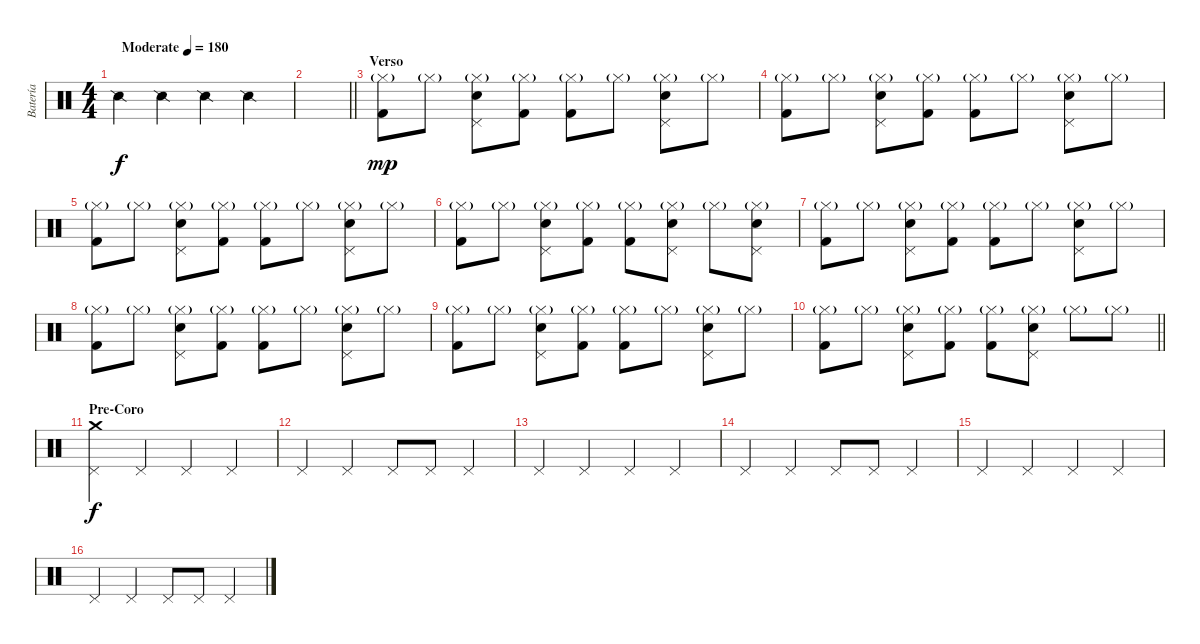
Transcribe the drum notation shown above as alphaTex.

\track ("Batería" "Batería") {instrument percussion}
\staff {score}
\articulation defaults
\ts (4 4)
\tempo (180 "Moderate")
\clef neutral
\ks c "Snare (side stick) 2".4{dy f} "Snare (side stick) 2".4 "Snare (side stick) 2".4 "Snare (side stick) 2".4
|
\barLineRight lightlight
|
\section ("" "Verso")
("Hi-Hat (closed)"{g} "Kick (hit) 2").8{dy mp} "Hi-Hat (closed)"{g}.8 ("Hi-Hat (closed)"{g} "Electric Snare (hit)" "Pedal Hi-Hat (hit)").8 ("Hi-Hat (closed)"{g} "Kick (hit) 2").8 ("Hi-Hat (closed)"{g} "Kick (hit) 2").8 "Hi-Hat (closed)"{g}.8 ("Hi-Hat (closed)"{g} "Electric Snare (hit)" "Pedal Hi-Hat (hit)").8 "Hi-Hat (closed)"{g}.8 |
("Hi-Hat (closed)"{g} "Kick (hit) 2").8 "Hi-Hat (closed)"{g}.8 ("Hi-Hat (closed)"{g} "Electric Snare (hit)" "Pedal Hi-Hat (hit)").8 ("Hi-Hat (closed)"{g} "Kick (hit) 2").8 ("Hi-Hat (closed)"{g} "Kick (hit) 2").8 "Hi-Hat (closed)"{g}.8 ("Hi-Hat (closed)"{g} "Electric Snare (hit)" "Pedal Hi-Hat (hit)").8 "Hi-Hat (closed)"{g}.8 |
("Hi-Hat (closed)"{g} "Kick (hit) 2").8 "Hi-Hat (closed)"{g}.8 ("Hi-Hat (closed)"{g} "Electric Snare (hit)" "Pedal Hi-Hat (hit)").8 ("Hi-Hat (closed)"{g} "Kick (hit) 2").8 ("Hi-Hat (closed)"{g} "Kick (hit) 2").8 "Hi-Hat (closed)"{g}.8 ("Hi-Hat (closed)"{g} "Electric Snare (hit)" "Pedal Hi-Hat (hit)").8 "Hi-Hat (closed)"{g}.8 |
("Hi-Hat (closed)"{g} "Kick (hit) 2").8 "Hi-Hat (closed)"{g}.8 ("Hi-Hat (closed)"{g} "Electric Snare (hit)" "Pedal Hi-Hat (hit)").8 ("Hi-Hat (closed)"{g} "Kick (hit) 2").8 ("Hi-Hat (closed)"{g} "Kick (hit) 2").8 ("Hi-Hat (closed)"{g} "Electric Snare (hit)" "Pedal Hi-Hat (hit)").8 "Hi-Hat (closed)"{g}.8 ("Hi-Hat (closed)"{g} "Electric Snare (hit)" "Pedal Hi-Hat (hit)").8 |
("Hi-Hat (closed)"{g} "Kick (hit) 2").8 "Hi-Hat (closed)"{g}.8 ("Hi-Hat (closed)"{g} "Electric Snare (hit)" "Pedal Hi-Hat (hit)").8 ("Hi-Hat (closed)"{g} "Kick (hit) 2").8 ("Hi-Hat (closed)"{g} "Kick (hit) 2").8 "Hi-Hat (closed)"{g}.8 ("Hi-Hat (closed)"{g} "Electric Snare (hit)" "Pedal Hi-Hat (hit)").8 "Hi-Hat (closed)"{g}.8 |
("Hi-Hat (closed)"{g} "Kick (hit) 2").8 "Hi-Hat (closed)"{g}.8 ("Hi-Hat (closed)"{g} "Electric Snare (hit)" "Pedal Hi-Hat (hit)").8 ("Hi-Hat (closed)"{g} "Kick (hit) 2").8 ("Hi-Hat (closed)"{g} "Kick (hit) 2").8 "Hi-Hat (closed)"{g}.8 ("Hi-Hat (closed)"{g} "Electric Snare (hit)" "Pedal Hi-Hat (hit)").8 "Hi-Hat (closed)"{g}.8 |
("Hi-Hat (closed)"{g} "Kick (hit) 2").8 "Hi-Hat (closed)"{g}.8 ("Hi-Hat (closed)"{g} "Electric Snare (hit)" "Pedal Hi-Hat (hit)").8 ("Hi-Hat (closed)"{g} "Kick (hit) 2").8 ("Hi-Hat (closed)"{g} "Kick (hit) 2").8 "Hi-Hat (closed)"{g}.8 ("Hi-Hat (closed)"{g} "Electric Snare (hit)" "Pedal Hi-Hat (hit)").8 "Hi-Hat (closed)"{g}.8 |
\barLineRight lightlight
("Hi-Hat (closed)"{g} "Kick (hit) 2").8 "Hi-Hat (closed)"{g}.8 ("Hi-Hat (closed)"{g} "Electric Snare (hit)" "Pedal Hi-Hat (hit)").8 ("Hi-Hat (closed)"{g} "Kick (hit) 2").8 ("Hi-Hat (closed)"{g} "Kick (hit) 2").8 ("Hi-Hat (closed)"{g} "Electric Snare (hit)" "Pedal Hi-Hat (hit)").8 "Hi-Hat (closed)"{g}.8 "Hi-Hat (closed)"{g}.8 |
\section ("" "Pre-Coro")
("Pedal Hi-Hat (hit)" "Crash medium (hit)").4{dy f} "Pedal Hi-Hat (hit)".4 "Pedal Hi-Hat (hit)".4 "Pedal Hi-Hat (hit)".4 |
"Pedal Hi-Hat (hit)".4 "Pedal Hi-Hat (hit)".4 "Pedal Hi-Hat (hit)".8 "Pedal Hi-Hat (hit)".8 "Pedal Hi-Hat (hit)".4 |
"Pedal Hi-Hat (hit)".4 "Pedal Hi-Hat (hit)".4 "Pedal Hi-Hat (hit)".4 "Pedal Hi-Hat (hit)".4 |
"Pedal Hi-Hat (hit)".4 "Pedal Hi-Hat (hit)".4 "Pedal Hi-Hat (hit)".8 "Pedal Hi-Hat (hit)".8 "Pedal Hi-Hat (hit)".4 |
"Pedal Hi-Hat (hit)".4 "Pedal Hi-Hat (hit)".4 "Pedal Hi-Hat (hit)".4 "Pedal Hi-Hat (hit)".4 |
"Pedal Hi-Hat (hit)".4 "Pedal Hi-Hat (hit)".4 "Pedal Hi-Hat (hit)".8 "Pedal Hi-Hat (hit)".8 "Pedal Hi-Hat (hit)".4
